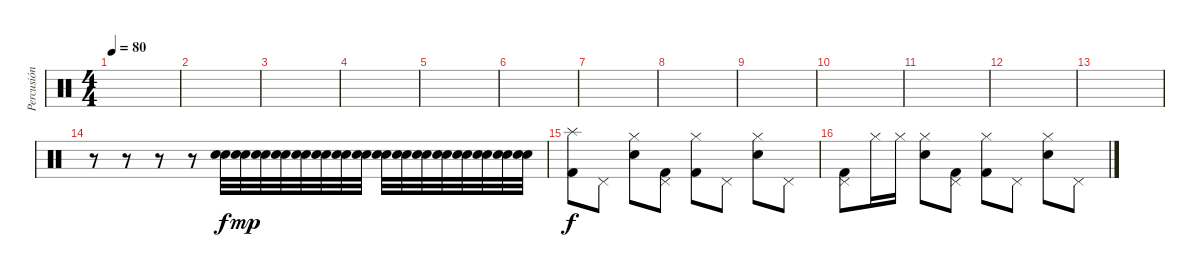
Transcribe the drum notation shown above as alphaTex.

\track ("Percusión" "Percusión") {instrument percussion}
\staff {score}
\articulation defaults
\ts (4 4)
\tempo 80
\clef neutral
\ks c
|
|
|
|
|
|
|
|
|
|
|
|
|
r.8 r.8 r.8 r.8 ("Snare (hit) 2" "Electric Snare (hit)").32 ("Snare (hit) 2" "Electric Snare (hit)").32{dy mp} ("Snare (hit) 2" "Electric Snare (hit)").32 ("Snare (hit) 2" "Electric Snare (hit)").32 ("Snare (hit) 2" "Electric Snare (hit)").32 ("Snare (hit) 2" "Electric Snare (hit)").32 ("Snare (hit) 2" "Electric Snare (hit)").32 ("Snare (hit) 2" "Electric Snare (hit)").32 ("Snare (hit) 2" "Electric Snare (hit)").32 ("Snare (hit) 2" "Electric Snare (hit)").32 ("Snare (hit) 2" "Electric Snare (hit)").32 ("Snare (hit) 2" "Electric Snare (hit)").32 ("Snare (hit) 2" "Electric Snare (hit)").32 ("Snare (hit) 2" "Electric Snare (hit)").32 ("Snare (hit) 2" "Electric Snare (hit)").32 ("Snare (hit) 2" "Electric Snare (hit)").32 |
("Splash (hit)" "Kick (hit) 2").8{dy f} "Pedal Hi-Hat (hit)".8 ("Hi-Hat (closed)" "Snare (hit) 2").8 ("Pedal Hi-Hat (hit)" "Kick (hit) 2").8 ("Hi-Hat (closed)" "Kick (hit) 2").8 "Pedal Hi-Hat (hit)".8 ("Hi-Hat (closed)" "Snare (hit) 2").8 "Pedal Hi-Hat (hit)".8 |
("Pedal Hi-Hat (hit)" "Kick (hit) 2").8 "Hi-Hat (closed)".16 "Hi-Hat (closed)".16 ("Hi-Hat (closed)" "Snare (hit) 2").8 ("Pedal Hi-Hat (hit)" "Kick (hit) 2").8 ("Hi-Hat (closed)" "Kick (hit) 2").8 "Pedal Hi-Hat (hit)".8 ("Hi-Hat (closed)" "Snare (hit) 2").8 "Pedal Hi-Hat (hit)".8
